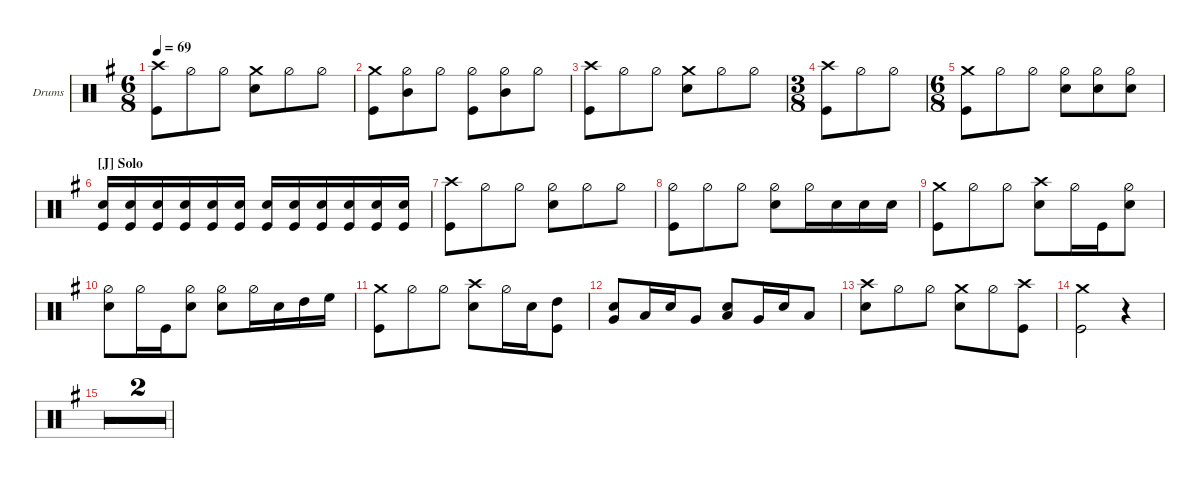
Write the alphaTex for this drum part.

\hideDynamics
\bracketExtendMode groupsimilarinstruments
\firstSystemTrackNameOrientation horizontal
\otherSystemsTrackNameOrientation horizontal
\track ("Drumkit" "Drums") {multiBarRest instrument percussion}
\staff {score}
\articulation defaults
\ts (6 8)
\tempo 69
\clef neutral
\ks g
("Crash high (hit)" "Kick (hit)").8{dy f} "Hi-Hat (half)".8 "Hi-Hat (half)".8 ("Crash medium (hit)" "Snare (hit) 2").8 "Hi-Hat (half)".8 "Hi-Hat (half)".8 |
("Crash medium (hit)" "Kick (hit)").8 ("Hi-Hat (half)" "Mid Tom (hit)").8 "Hi-Hat (half)".8 ("Hi-Hat (half)" "Kick (hit)").8 ("Hi-Hat (half)" "Mid Tom (hit)").8 "Hi-Hat (half)".8 |
("Crash high (hit)" "Kick (hit)").8 "Hi-Hat (half)".8 "Hi-Hat (half)".8 ("Crash medium (hit)" "Snare (hit) 2").8 "Hi-Hat (half)".8 "Hi-Hat (half)".8 |
\ts (3 8)
("Crash high (hit)" "Kick (hit)").8 "Hi-Hat (half)".8 "Hi-Hat (half)".8 |
\ts (6 8)
("Crash medium (hit)" "Kick (hit)").8 "Hi-Hat (half)".8 "Hi-Hat (half)".8 ("Hi-Hat (half)" "Snare (hit) 2").8 ("Hi-Hat (half)" "Snare (hit) 2").8 ("Hi-Hat (half)" "Snare (hit) 2").8 |
\section ("J" "Solo")
("Snare (hit) 2" "Kick (hit)").16 ("Snare (hit) 2" "Kick (hit)").16 ("Snare (hit) 2" "Kick (hit)").16 ("Snare (hit) 2" "Kick (hit)").16 ("Snare (hit) 2" "Kick (hit)").16 ("Snare (hit) 2" "Kick (hit)").16 ("Snare (hit) 2" "Kick (hit)").16 ("Snare (hit) 2" "Kick (hit)").16 ("Snare (hit) 2" "Kick (hit)").16 ("Snare (hit) 2" "Kick (hit)").16 ("Snare (hit) 2" "Kick (hit)").16 ("Snare (hit) 2" "Kick (hit)").16 |
("Crash high (hit)" "Kick (hit)").8 "Hi-Hat (half)".8 "Hi-Hat (half)".8 ("Hi-Hat (half)" "Snare (hit) 2").8 "Hi-Hat (half)".8 "Hi-Hat (half)".8 |
("Hi-Hat (half)" "Kick (hit)").8 "Hi-Hat (half)".8 "Hi-Hat (half)".8 ("Hi-Hat (half)" "Snare (hit) 2").8 "Hi-Hat (half)".16 "Snare (hit) 2".16 "Snare (hit) 2".16 "Snare (hit) 2".16 |
("Crash medium (hit)" "Kick (hit)").8 "Hi-Hat (half)".8 "Hi-Hat (half)".8 ("Crash high (hit)" "Snare (hit) 2").8 "Hi-Hat (half)".16 "Kick (hit)".16 ("Hi-Hat (half)" "Snare (hit) 2").8 |
("Hi-Hat (half)" "Snare (hit) 2").8 "Hi-Hat (half)".16 "Kick (hit)".16 ("Hi-Hat (half)" "Snare (hit) 2").8 ("Hi-Hat (half)" "Snare (hit) 2").8 "Hi-Hat (half)".16 "Snare (hit) 2".16 "High Tom (hit)".16 "High Floor Tom (hit)".16 |
("Crash medium (hit)" "Kick (hit)").8 "Hi-Hat (half)".8 "Hi-Hat (half)".8 ("Crash high (hit)" "Snare (hit) 2").8 "Hi-Hat (half)".16 "Snare (hit) 2".16 ("High Tom (hit)" "Kick (hit)").8 |
("Snare (hit) 2" "Very Low Tom (hit)").8 "Low Tom (hit)".16 "Snare (hit) 2".16 "Very Low Tom (hit)".8 ("Snare (hit) 2" "Low Tom (hit)").8 "Very Low Tom (hit)".16 "Snare (hit) 2".16 "Low Tom (hit)".8 |
("Crash high (hit)" "Snare (hit) 2").8 "Hi-Hat (half)".8 "Hi-Hat (half)".8 ("Crash medium (hit)" "Snare (hit) 2").8 "Hi-Hat (half)".8 ("Crash high (hit)" "Kick (hit)").8 |
("Crash medium (hit)" "Kick (hit)").2 r.4 |
r.2{d} |
r.2{d}
